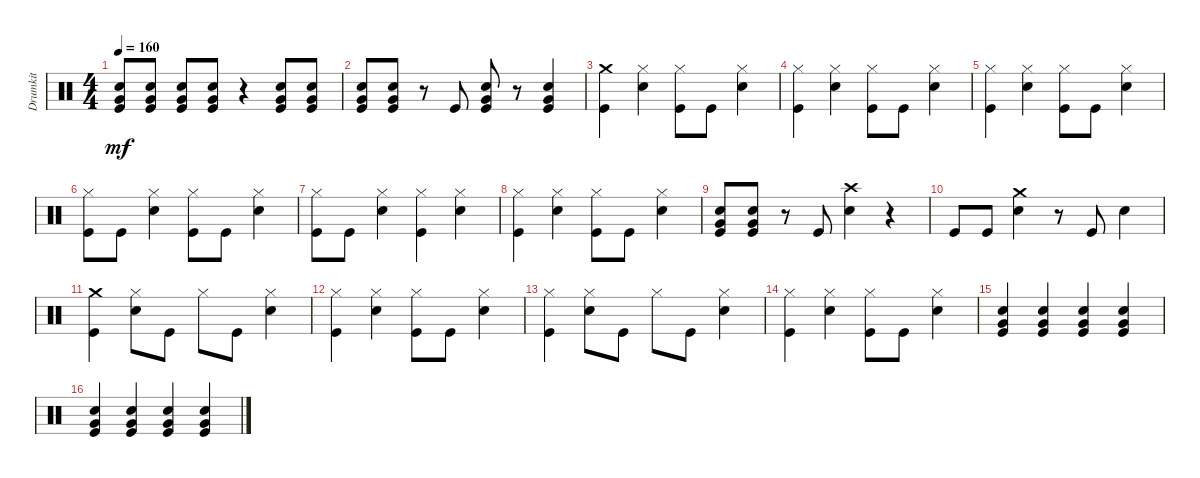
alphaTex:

\track ("Drumkit" "Drumkit") {instrument percussion}
\staff {score}
\articulation defaults
\ts (4 4)
\tempo 160
\clef neutral
\ks c
("Kick (hit)" "Very Low Tom (hit)" "Snare (hit) 2").8{dy mf} ("Kick (hit)" "Very Low Tom (hit)" "Snare (hit) 2").8 ("Kick (hit)" "Very Low Tom (hit)" "Snare (hit) 2").8 ("Kick (hit)" "Very Low Tom (hit)" "Snare (hit) 2").8 r.4 ("Kick (hit)" "Very Low Tom (hit)" "Snare (hit) 2").8 ("Kick (hit)" "Very Low Tom (hit)" "Snare (hit) 2").8 |
("Kick (hit)" "Very Low Tom (hit)" "Snare (hit) 2").8 ("Kick (hit)" "Very Low Tom (hit)" "Snare (hit) 2").8 r.8 "Kick (hit)".8 ("Kick (hit)" "Very Low Tom (hit)" "Snare (hit) 2").8 r.8 ("Kick (hit)" "Very Low Tom (hit)" "Snare (hit) 2").4 |
("Kick (hit)" "Crash medium (hit)").4 ("Hi-Hat (closed)" "Snare (hit) 2").4 ("Kick (hit)" "Hi-Hat (closed)").8 "Kick (hit)".8 ("Snare (hit) 2" "Hi-Hat (closed)").4 |
("Kick (hit)" "Hi-Hat (closed)").4 ("Hi-Hat (closed)" "Snare (hit) 2").4 ("Kick (hit)" "Hi-Hat (closed)").8 "Kick (hit)".8 ("Snare (hit) 2" "Hi-Hat (closed)").4 |
("Kick (hit)" "Hi-Hat (closed)").4 ("Hi-Hat (closed)" "Snare (hit) 2").4 ("Kick (hit)" "Hi-Hat (closed)").8 "Kick (hit)".8 ("Snare (hit) 2" "Hi-Hat (closed)").4 |
("Kick (hit)" "Hi-Hat (closed)").8 "Kick (hit)".8 ("Snare (hit) 2" "Hi-Hat (closed)").4 ("Kick (hit)" "Hi-Hat (closed)").8 "Kick (hit)".8 ("Snare (hit) 2" "Hi-Hat (closed)").4 |
("Kick (hit)" "Hi-Hat (closed)").8 "Kick (hit)".8 ("Snare (hit) 2" "Hi-Hat (closed)").4 ("Kick (hit)" "Hi-Hat (closed)").4 ("Hi-Hat (closed)" "Snare (hit) 2").4 |
("Kick (hit)" "Hi-Hat (closed)").4 ("Hi-Hat (closed)" "Snare (hit) 2").4 ("Kick (hit)" "Hi-Hat (closed)").8 "Kick (hit)".8 ("Snare (hit) 2" "Hi-Hat (closed)").4 |
("Kick (hit)" "Very Low Tom (hit)" "Snare (hit) 2").8 ("Kick (hit)" "Very Low Tom (hit)" "Snare (hit) 2").8 r.8 "Kick (hit)".8 ("Snare (hit) 2" "Crash high (hit)").4 r.4 |
"Kick (hit)".8 "Kick (hit)".8 ("Snare (hit) 2" "Crash medium (hit)").4 r.8 "Kick (hit)".8 "Snare (hit) 2".4 |
("Crash medium (hit)" "Kick (hit)").4 ("Snare (hit) 2" "Hi-Hat (closed)").8 "Kick (hit)".8 "Hi-Hat (closed)".8 "Kick (hit)".8 ("Snare (hit) 2" "Hi-Hat (closed)").4 |
("Kick (hit)" "Hi-Hat (closed)").4 ("Hi-Hat (closed)" "Snare (hit) 2").4 ("Kick (hit)" "Hi-Hat (closed)").8 "Kick (hit)".8 ("Snare (hit) 2" "Hi-Hat (closed)").4 |
("Kick (hit)" "Hi-Hat (closed)").4 ("Snare (hit) 2" "Hi-Hat (closed)").8 "Kick (hit)".8 "Hi-Hat (closed)".8 "Kick (hit)".8 ("Snare (hit) 2" "Hi-Hat (closed)").4 |
("Kick (hit)" "Hi-Hat (closed)").4 ("Hi-Hat (closed)" "Snare (hit) 2").4 ("Kick (hit)" "Hi-Hat (closed)").8 "Kick (hit)".8 ("Snare (hit) 2" "Hi-Hat (closed)").4 |
("Kick (hit)" "Snare (hit) 2" "Very Low Tom (hit)").4 ("Kick (hit)" "Snare (hit) 2" "Very Low Tom (hit)").4 ("Kick (hit)" "Snare (hit) 2" "Very Low Tom (hit)").4 ("Kick (hit)" "Snare (hit) 2" "Very Low Tom (hit)").4 |
("Kick (hit)" "Snare (hit) 2" "Very Low Tom (hit)").4 ("Kick (hit)" "Snare (hit) 2" "Very Low Tom (hit)").4 ("Kick (hit)" "Snare (hit) 2" "Very Low Tom (hit)").4 ("Kick (hit)" "Snare (hit) 2" "Very Low Tom (hit)").4
